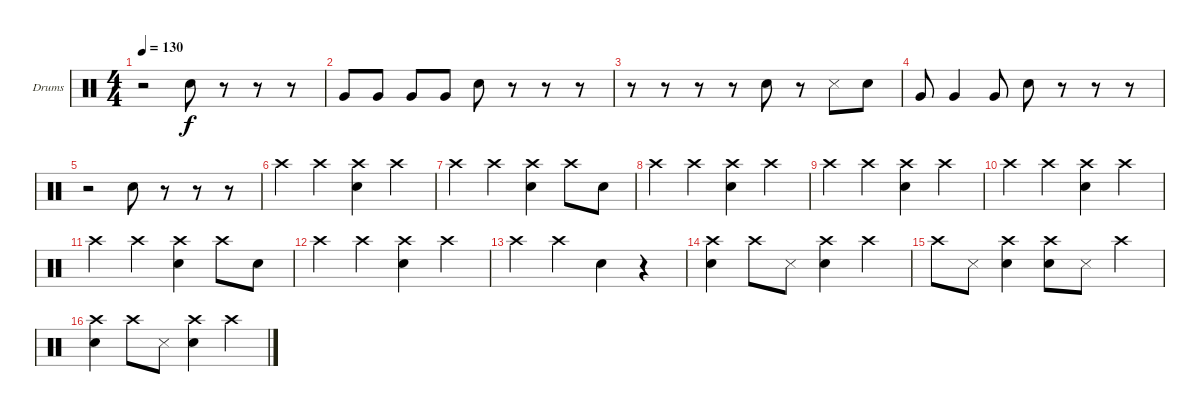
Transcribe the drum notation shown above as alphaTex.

\defaultSystemsLayout 4
\bracketExtendMode groupsimilarinstruments
\firstSystemTrackNameOrientation horizontal
\otherSystemsTrackNameOrientation horizontal
\track ("Drumkit" "Drums") {instrument percussion}
\staff {score}
\articulation defaults
\ts (4 4)
\tempo 130
\clef neutral
\ks c
r.2{dy f} "Snare (hit) 2".8 r.8 r.8 r.8 |
"Very Low Tom (hit)".8 "Very Low Tom (hit)".8 "Very Low Tom (hit)".8 "Very Low Tom (hit)".8 "Snare (hit) 2".8 r.8 r.8 r.8 |
r.8 r.8 r.8 r.8 "Snare (hit) 2".8 r.8 "Snare (side stick) 3".8 "Snare (hit) 2".8 |
"Very Low Tom (hit)".8 "Very Low Tom (hit)".4 "Very Low Tom (hit)".8 "Snare (hit) 2".8 r.8 r.8 r.8 |
r.2 "Snare (hit) 2".8 r.8 r.8 r.8 |
"Crash high (hit)".4 "Crash high (hit)".4 ("Snare (hit) 2" "Crash high (hit)").4 "Crash high (hit)".4 |
"Crash high (hit)".4 "Crash high (hit)".4 ("Snare (hit) 2" "Crash high (hit)").4 "Crash high (hit)".8 "Snare (hit) 2".8 |
"Crash high (hit)".4 "Crash high (hit)".4 ("Snare (hit) 2" "Crash high (hit)").4 "Crash high (hit)".4 |
"Crash high (hit)".4 "Crash high (hit)".4 ("Snare (hit) 2" "Crash high (hit)").4 "Crash high (hit)".4 |
"Crash high (hit)".4 "Crash high (hit)".4 ("Snare (hit) 2" "Crash high (hit)").4 "Crash high (hit)".4 |
"Crash high (hit)".4 "Crash high (hit)".4 ("Snare (hit) 2" "Crash high (hit)").4 "Crash high (hit)".8 "Snare (hit) 2".8 |
"Crash high (hit)".4 "Crash high (hit)".4 ("Snare (hit) 2" "Crash high (hit)").4 "Crash high (hit)".4 |
"Crash high (hit)".4 "Crash high (hit)".4 "Snare (hit) 2".4 r.4 |
("Snare (hit) 2" "Crash high (hit)").4 "Crash high (hit)".8 "Snare (side stick) 3".8 ("Snare (hit) 2" "Crash high (hit)").4 "Crash high (hit)".4 |
"Crash high (hit)".8 "Snare (side stick) 3".8 ("Snare (hit) 2" "Crash high (hit)").4 ("Snare (hit) 2" "Crash high (hit)").8 "Snare (side stick) 3".8 "Crash high (hit)".4 |
("Snare (hit) 2" "Crash high (hit)").4 "Crash high (hit)".8 "Snare (side stick) 3".8 ("Snare (hit) 2" "Crash high (hit)").4 "Crash high (hit)".4
